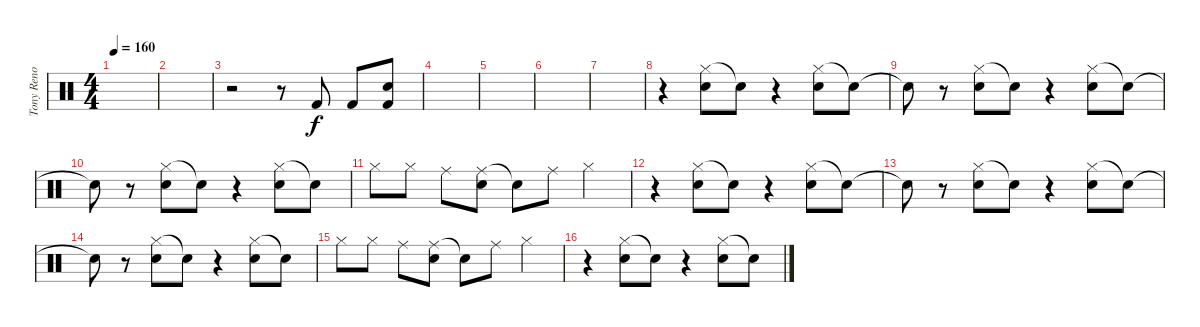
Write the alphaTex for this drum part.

\track ("Tony Reno" "Tony Reno") {instrument percussion}
\staff {score}
\articulation defaults
\ts (4 4)
\tempo 160
\clef neutral
\ks c
|
|
r.2 r.8 "Kick (hit) 2".8 "Kick (hit) 2".8 ("Snare (hit) 2" "Kick (hit) 2").8 |
|
|
|
|
r.4 ("Hi-Hat (closed)" "Snare (hit) 2").8 "Snare (hit)"{t}.8 r.4 ("Hi-Hat (closed)" "Snare (hit) 2").8 "Snare (hit)"{t}.8 |
"Snare (hit)"{t}.8 r.8 ("Hi-Hat (closed)" "Snare (hit) 2").8 "Snare (hit)"{t}.8 r.4 ("Hi-Hat (closed)" "Snare (hit) 2").8 "Snare (hit)"{t}.8 |
"Snare (hit)"{t}.8 r.8 ("Hi-Hat (closed)" "Snare (hit) 2").8 "Snare (hit)"{t}.8 r.4 ("Hi-Hat (closed)" "Snare (hit) 2").8 "Snare (hit)"{t}.8 |
"Hi-Hat (closed)".8 "Hi-Hat (closed)".8 "Ride (middle)".8 ("Ride (middle)" "Snare (hit) 2").8 "Snare (hit)"{t}.8 "Ride (middle)".8 "Hi-Hat (closed)".4 |
r.4 ("Hi-Hat (closed)" "Snare (hit) 2").8 "Snare (hit)"{t}.8 r.4 ("Hi-Hat (closed)" "Snare (hit) 2").8 "Snare (hit)"{t}.8 |
"Snare (hit)"{t}.8 r.8 ("Hi-Hat (closed)" "Snare (hit) 2").8 "Snare (hit)"{t}.8 r.4 ("Hi-Hat (closed)" "Snare (hit) 2").8 "Snare (hit)"{t}.8 |
"Snare (hit)"{t}.8 r.8 ("Hi-Hat (closed)" "Snare (hit) 2").8 "Snare (hit)"{t}.8 r.4 ("Hi-Hat (closed)" "Snare (hit) 2").8 "Snare (hit)"{t}.8 |
"Hi-Hat (closed)".8 "Hi-Hat (closed)".8 "Ride (middle)".8 ("Ride (middle)" "Snare (hit) 2").8 "Snare (hit)"{t}.8 "Ride (middle)".8 "Hi-Hat (closed)".4 |
r.4 ("Hi-Hat (closed)" "Snare (hit) 2").8 "Snare (hit)"{t}.8 r.4 ("Hi-Hat (closed)" "Snare (hit) 2").8 "Snare (hit)"{t}.8
